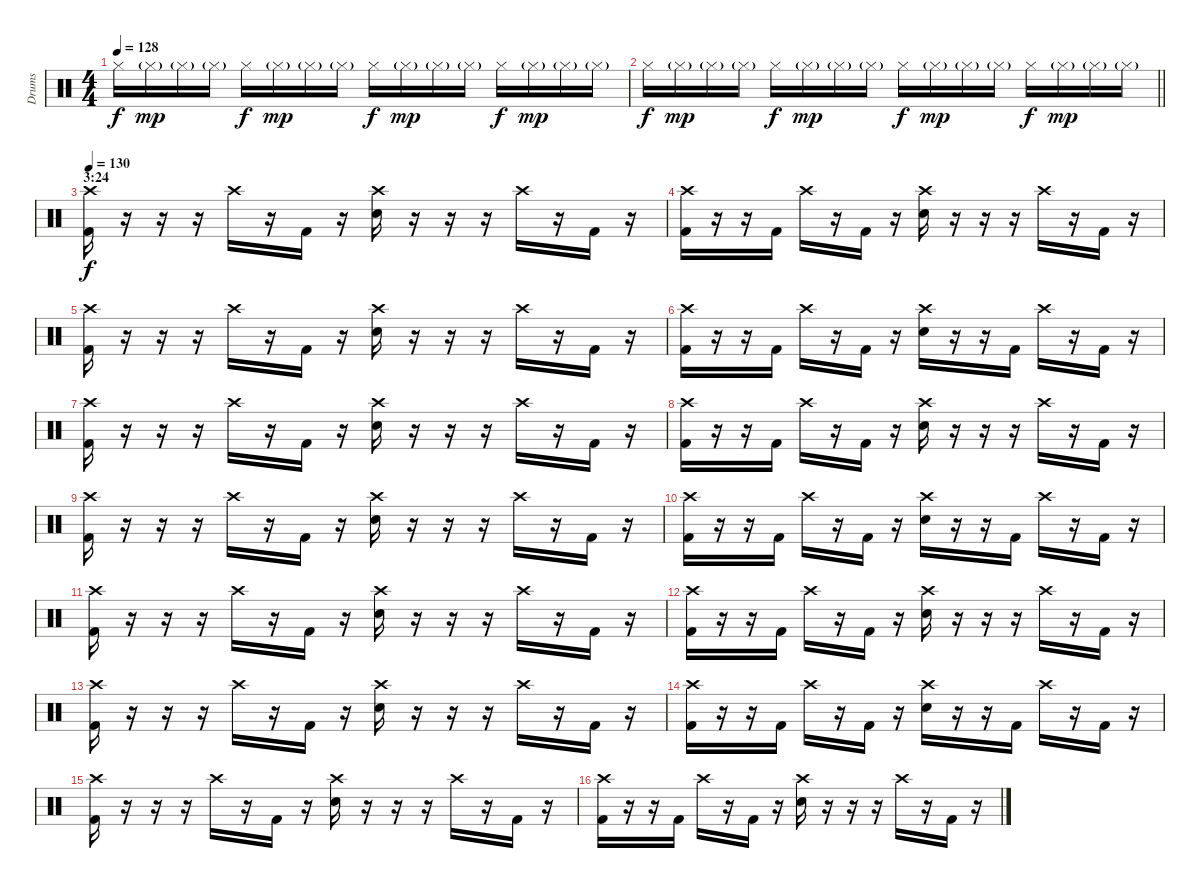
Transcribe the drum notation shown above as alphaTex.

\track ("Drums" "Drums") {instrument percussion}
\staff {score}
\articulation defaults
\ts (4 4)
\tempo 128
\clef neutral
\ks c "Hi-Hat (closed)".16{dy f} "Hi-Hat (closed)"{g}.16{dy mp} "Hi-Hat (closed)"{g}.16 "Hi-Hat (closed)"{g}.16 "Hi-Hat (closed)".16{dy f} "Hi-Hat (closed)"{g}.16{dy mp} "Hi-Hat (closed)"{g}.16 "Hi-Hat (closed)"{g}.16 "Hi-Hat (closed)".16{dy f} "Hi-Hat (closed)"{g}.16{dy mp} "Hi-Hat (closed)"{g}.16 "Hi-Hat (closed)"{g}.16 "Hi-Hat (closed)".16{dy f} "Hi-Hat (closed)"{g}.16{dy mp} "Hi-Hat (closed)"{g}.16 "Hi-Hat (closed)"{g}.16
|
\barLineRight lightlight "Hi-Hat (closed)".16{dy f} "Hi-Hat (closed)"{g}.16{dy mp} "Hi-Hat (closed)"{g}.16 "Hi-Hat (closed)"{g}.16 "Hi-Hat (closed)".16{dy f} "Hi-Hat (closed)"{g}.16{dy mp} "Hi-Hat (closed)"{g}.16 "Hi-Hat (closed)"{g}.16 "Hi-Hat (closed)".16{dy f} "Hi-Hat (closed)"{g}.16{dy mp} "Hi-Hat (closed)"{g}.16 "Hi-Hat (closed)"{g}.16 "Hi-Hat (closed)".16{dy f} "Hi-Hat (closed)"{g}.16{dy mp} "Hi-Hat (closed)"{g}.16 "Hi-Hat (closed)"{g}.16
|
\section ("" "3:24")
\tempo 130
("Crash high (hit)" "Kick (hit) 2").16{dy f} r.16 r.16 r.16 "Crash high (hit)".16 r.16 "Kick (hit) 2".16 r.16 ("Crash high (hit)" "Electric Snare (hit)").16 r.16 r.16 r.16 "Crash high (hit)".16 r.16 "Kick (hit) 2".16 r.16 |
("Crash high (hit)" "Kick (hit) 2").16 r.16 r.16 "Kick (hit) 2".16 "Crash high (hit)".16 r.16 "Kick (hit) 2".16 r.16 ("Crash high (hit)" "Electric Snare (hit)").16 r.16 r.16 r.16 "Crash high (hit)".16 r.16 "Kick (hit) 2".16 r.16 |
("Crash high (hit)" "Kick (hit) 2").16 r.16 r.16 r.16 "Crash high (hit)".16 r.16 "Kick (hit) 2".16 r.16 ("Crash high (hit)" "Electric Snare (hit)").16 r.16 r.16 r.16 "Crash high (hit)".16 r.16 "Kick (hit) 2".16 r.16 |
("Crash high (hit)" "Kick (hit) 2").16 r.16 r.16 "Kick (hit) 2".16 "Crash high (hit)".16 r.16 "Kick (hit) 2".16 r.16 ("Crash high (hit)" "Electric Snare (hit)").16 r.16 r.16 "Kick (hit) 2".16 "Crash high (hit)".16 r.16 "Kick (hit) 2".16 r.16 |
("Crash high (hit)" "Kick (hit) 2").16 r.16 r.16 r.16 "Crash high (hit)".16 r.16 "Kick (hit) 2".16 r.16 ("Crash high (hit)" "Electric Snare (hit)").16 r.16 r.16 r.16 "Crash high (hit)".16 r.16 "Kick (hit) 2".16 r.16 |
("Crash high (hit)" "Kick (hit) 2").16 r.16 r.16 "Kick (hit) 2".16 "Crash high (hit)".16 r.16 "Kick (hit) 2".16 r.16 ("Crash high (hit)" "Electric Snare (hit)").16 r.16 r.16 r.16 "Crash high (hit)".16 r.16 "Kick (hit) 2".16 r.16 |
("Crash high (hit)" "Kick (hit) 2").16 r.16 r.16 r.16 "Crash high (hit)".16 r.16 "Kick (hit) 2".16 r.16 ("Crash high (hit)" "Electric Snare (hit)").16 r.16 r.16 r.16 "Crash high (hit)".16 r.16 "Kick (hit) 2".16 r.16 |
("Crash high (hit)" "Kick (hit) 2").16 r.16 r.16 "Kick (hit) 2".16 "Crash high (hit)".16 r.16 "Kick (hit) 2".16 r.16 ("Crash high (hit)" "Electric Snare (hit)").16 r.16 r.16 "Kick (hit) 2".16 "Crash high (hit)".16 r.16 "Kick (hit) 2".16 r.16 |
("Crash high (hit)" "Kick (hit) 2").16 r.16 r.16 r.16 "Crash high (hit)".16 r.16 "Kick (hit) 2".16 r.16 ("Crash high (hit)" "Electric Snare (hit)").16 r.16 r.16 r.16 "Crash high (hit)".16 r.16 "Kick (hit) 2".16 r.16 |
("Crash high (hit)" "Kick (hit) 2").16 r.16 r.16 "Kick (hit) 2".16 "Crash high (hit)".16 r.16 "Kick (hit) 2".16 r.16 ("Crash high (hit)" "Electric Snare (hit)").16 r.16 r.16 r.16 "Crash high (hit)".16 r.16 "Kick (hit) 2".16 r.16 |
("Crash high (hit)" "Kick (hit) 2").16 r.16 r.16 r.16 "Crash high (hit)".16 r.16 "Kick (hit) 2".16 r.16 ("Crash high (hit)" "Electric Snare (hit)").16 r.16 r.16 r.16 "Crash high (hit)".16 r.16 "Kick (hit) 2".16 r.16 |
("Crash high (hit)" "Kick (hit) 2").16 r.16 r.16 "Kick (hit) 2".16 "Crash high (hit)".16 r.16 "Kick (hit) 2".16 r.16 ("Crash high (hit)" "Electric Snare (hit)").16 r.16 r.16 "Kick (hit) 2".16 "Crash high (hit)".16 r.16 "Kick (hit) 2".16 r.16 |
("Crash high (hit)" "Kick (hit) 2").16 r.16 r.16 r.16 "Crash high (hit)".16 r.16 "Kick (hit) 2".16 r.16 ("Crash high (hit)" "Electric Snare (hit)").16 r.16 r.16 r.16 "Crash high (hit)".16 r.16 "Kick (hit) 2".16 r.16 |
("Crash high (hit)" "Kick (hit) 2").16 r.16 r.16 "Kick (hit) 2".16 "Crash high (hit)".16 r.16 "Kick (hit) 2".16 r.16 ("Crash high (hit)" "Electric Snare (hit)").16 r.16 r.16 r.16 "Crash high (hit)".16 r.16 "Kick (hit) 2".16 r.16
